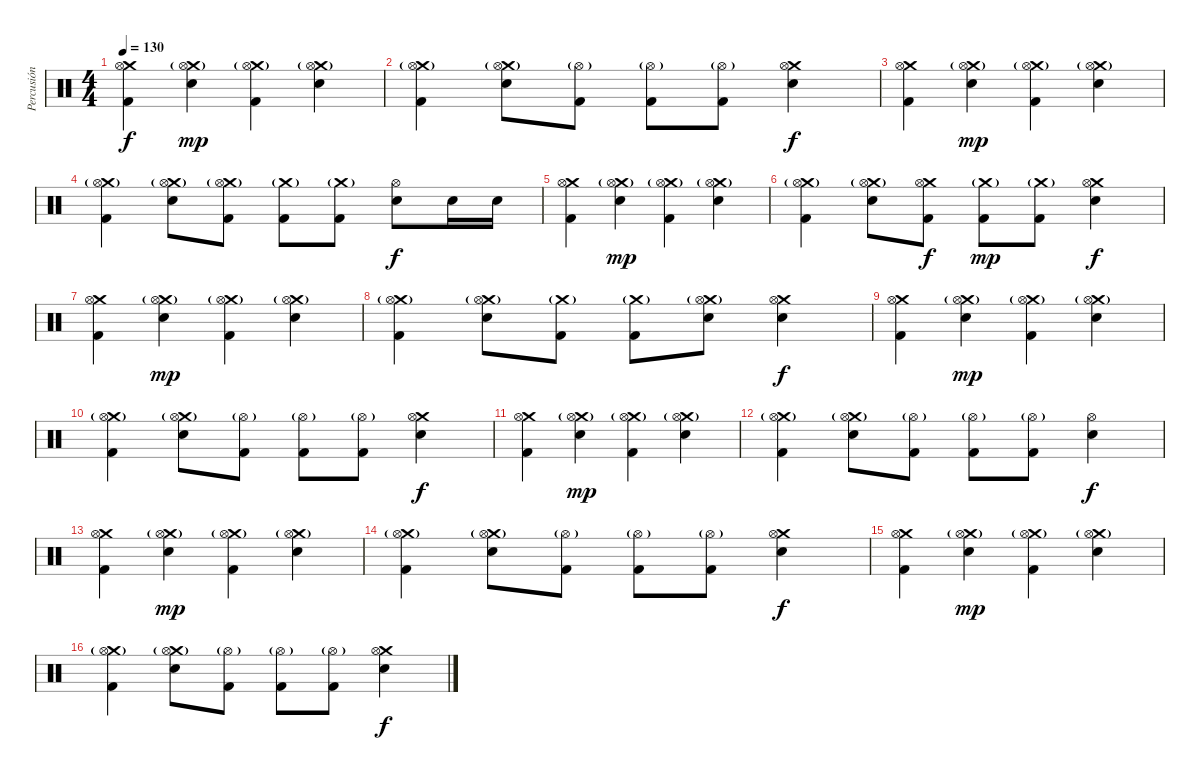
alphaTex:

\track ("Percusión" "Percusión") {instrument percussion}
\staff {score}
\articulation defaults
\ts (4 4)
\tempo 130
\clef neutral
\ks c
("Crash medium (hit)" "Kick (hit) 2" "Hi-Hat (open)").4{dy f} ("Snare (hit) 2" "Crash medium (hit)"{g} "Hi-Hat (open)").4{dy mp} ("Kick (hit) 2" "Crash medium (hit)"{g} "Hi-Hat (open)").4 ("Snare (hit) 2" "Crash medium (hit)"{g} "Hi-Hat (open)").4 |
("Kick (hit) 2" "Crash medium (hit)"{g} "Hi-Hat (open)").4 ("Snare (hit) 2" "Crash medium (hit)"{g} "Hi-Hat (open)").8 ("Kick (hit) 2" "Hi-Hat (open)"{g}).8 ("Kick (hit) 2" "Hi-Hat (open)"{g}).8 ("Kick (hit) 2" "Hi-Hat (open)"{g}).8 ("Snare (hit) 2" "Crash medium (hit)" "Hi-Hat (open)").4{dy f} |
("Crash medium (hit)" "Kick (hit) 2" "Hi-Hat (open)").4 ("Snare (hit) 2" "Crash medium (hit)"{g} "Hi-Hat (open)").4{dy mp} ("Kick (hit) 2" "Crash medium (hit)"{g} "Hi-Hat (open)").4 ("Snare (hit) 2" "Crash medium (hit)"{g} "Hi-Hat (open)").4 |
("Kick (hit) 2" "Crash medium (hit)"{g} "Hi-Hat (open)").4 ("Snare (hit) 2" "Crash medium (hit)"{g} "Hi-Hat (open)").8 ("Kick (hit) 2" "Crash medium (hit)"{g} "Hi-Hat (open)").8 ("Kick (hit) 2" "Crash medium (hit)"{g}).8 ("Kick (hit) 2" "Crash medium (hit)"{g}).8 ("Snare (hit) 2" "Hi-Hat (open)").8{dy f} "Snare (hit) 2".16 "Snare (hit) 2".16 |
("Crash medium (hit)" "Kick (hit) 2" "Hi-Hat (open)").4 ("Snare (hit) 2" "Crash medium (hit)"{g} "Hi-Hat (open)").4{dy mp} ("Kick (hit) 2" "Crash medium (hit)"{g} "Hi-Hat (open)").4 ("Snare (hit) 2" "Crash medium (hit)"{g} "Hi-Hat (open)").4 |
("Kick (hit) 2" "Crash medium (hit)"{g} "Hi-Hat (open)").4 ("Snare (hit) 2" "Crash medium (hit)"{g} "Hi-Hat (open)").8 ("Kick (hit) 2" "Crash medium (hit)" "Hi-Hat (open)").8{dy f} ("Kick (hit) 2" "Crash medium (hit)"{g}).8{dy mp} ("Kick (hit) 2" "Crash medium (hit)"{g}).8 ("Snare (hit) 2" "Crash medium (hit)" "Hi-Hat (open)").4{dy f} |
("Crash medium (hit)" "Kick (hit) 2" "Hi-Hat (open)").4 ("Snare (hit) 2" "Crash medium (hit)"{g} "Hi-Hat (open)").4{dy mp} ("Kick (hit) 2" "Crash medium (hit)"{g} "Hi-Hat (open)").4 ("Snare (hit) 2" "Crash medium (hit)"{g} "Hi-Hat (open)").4 |
("Kick (hit) 2" "Crash medium (hit)"{g} "Hi-Hat (open)").4 ("Snare (hit) 2" "Crash medium (hit)"{g} "Hi-Hat (open)").8 ("Kick (hit) 2" "Crash medium (hit)"{g}).8 ("Kick (hit) 2" "Crash medium (hit)"{g}).8 ("Snare (hit) 2" "Crash medium (hit)"{g} "Hi-Hat (open)").8 ("Snare (hit) 2" "Crash medium (hit)" "Hi-Hat (open)").4{dy f} |
("Crash medium (hit)" "Kick (hit) 2" "Hi-Hat (open)").4 ("Snare (hit) 2" "Crash medium (hit)"{g} "Hi-Hat (open)").4{dy mp} ("Kick (hit) 2" "Crash medium (hit)"{g} "Hi-Hat (open)").4 ("Snare (hit) 2" "Crash medium (hit)"{g} "Hi-Hat (open)").4 |
("Kick (hit) 2" "Crash medium (hit)"{g} "Hi-Hat (open)").4 ("Snare (hit) 2" "Crash medium (hit)"{g} "Hi-Hat (open)").8 ("Kick (hit) 2" "Hi-Hat (open)"{g}).8 ("Kick (hit) 2" "Hi-Hat (open)"{g}).8 ("Kick (hit) 2" "Hi-Hat (open)"{g}).8 ("Snare (hit) 2" "Crash medium (hit)" "Hi-Hat (open)").4{dy f} |
("Crash medium (hit)" "Kick (hit) 2" "Hi-Hat (open)").4 ("Snare (hit) 2" "Crash medium (hit)"{g} "Hi-Hat (open)").4{dy mp} ("Kick (hit) 2" "Crash medium (hit)"{g} "Hi-Hat (open)").4 ("Snare (hit) 2" "Crash medium (hit)"{g} "Hi-Hat (open)").4 |
("Kick (hit) 2" "Crash medium (hit)"{g} "Hi-Hat (open)").4 ("Snare (hit) 2" "Crash medium (hit)"{g} "Hi-Hat (open)").8 ("Kick (hit) 2" "Hi-Hat (open)"{g}).8 ("Kick (hit) 2" "Hi-Hat (open)"{g}).8 ("Kick (hit) 2" "Hi-Hat (open)"{g}).8 ("Snare (hit) 2" "Hi-Hat (open)").4{dy f} |
("Crash medium (hit)" "Kick (hit) 2" "Hi-Hat (open)").4 ("Snare (hit) 2" "Crash medium (hit)"{g} "Hi-Hat (open)").4{dy mp} ("Kick (hit) 2" "Crash medium (hit)"{g} "Hi-Hat (open)").4 ("Snare (hit) 2" "Crash medium (hit)"{g} "Hi-Hat (open)").4 |
("Kick (hit) 2" "Crash medium (hit)"{g} "Hi-Hat (open)").4 ("Snare (hit) 2" "Crash medium (hit)"{g} "Hi-Hat (open)").8 ("Kick (hit) 2" "Hi-Hat (open)"{g}).8 ("Kick (hit) 2" "Hi-Hat (open)"{g}).8 ("Kick (hit) 2" "Hi-Hat (open)"{g}).8 ("Snare (hit) 2" "Crash medium (hit)" "Hi-Hat (open)").4{dy f} |
("Crash medium (hit)" "Kick (hit) 2" "Hi-Hat (open)").4 ("Snare (hit) 2" "Crash medium (hit)"{g} "Hi-Hat (open)").4{dy mp} ("Kick (hit) 2" "Crash medium (hit)"{g} "Hi-Hat (open)").4 ("Snare (hit) 2" "Crash medium (hit)"{g} "Hi-Hat (open)").4 |
("Kick (hit) 2" "Crash medium (hit)"{g} "Hi-Hat (open)").4 ("Snare (hit) 2" "Crash medium (hit)"{g} "Hi-Hat (open)").8 ("Kick (hit) 2" "Hi-Hat (open)"{g}).8 ("Kick (hit) 2" "Hi-Hat (open)"{g}).8 ("Kick (hit) 2" "Hi-Hat (open)"{g}).8 ("Snare (hit) 2" "Crash medium (hit)" "Hi-Hat (open)").4{dy f}
